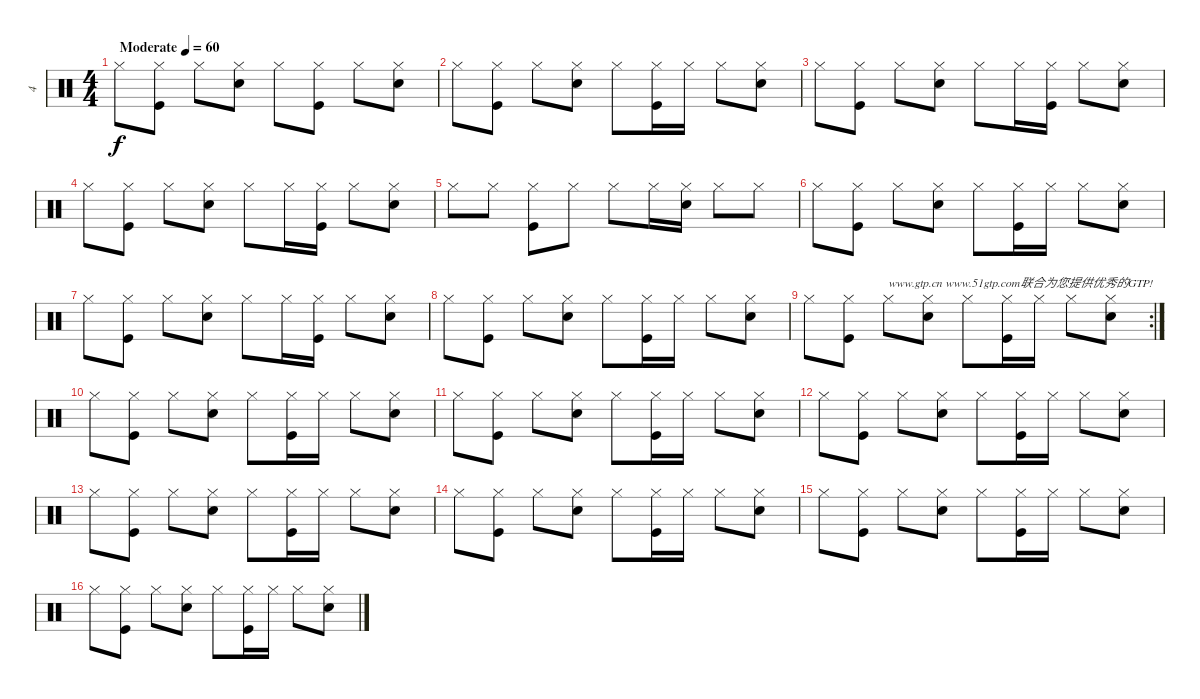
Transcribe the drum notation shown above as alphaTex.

\track ("4" "4") {instrument percussion}
\staff {score}
\articulation defaults
\ts (4 4)
\tempo (60 "Moderate")
\clef neutral
\ks c "Hi-Hat (closed)".8{dy f}
("Kick (hit)" "Hi-Hat (closed)").8 "Hi-Hat (closed)".8 ("Hand Clap (hit)" "Hi-Hat (closed)").8 "Hi-Hat (closed)".8 ("Kick (hit)" "Hi-Hat (closed)").8 "Hi-Hat (closed)".8 ("Hand Clap (hit)" "Hi-Hat (closed)").8 |
"Hi-Hat (closed)".8 ("Kick (hit)" "Hi-Hat (closed)").8 "Hi-Hat (closed)".8 ("Hand Clap (hit)" "Hi-Hat (closed)").8 "Hi-Hat (closed)".8 ("Kick (hit)" "Hi-Hat (closed)").16 "Hi-Hat (closed)".16 "Hi-Hat (closed)".8 ("Hand Clap (hit)" "Hi-Hat (closed)").8 |
"Hi-Hat (closed)".8 ("Kick (hit)" "Hi-Hat (closed)").8 "Hi-Hat (closed)".8 ("Hand Clap (hit)" "Hi-Hat (closed)").8 "Hi-Hat (closed)".8 "Hi-Hat (closed)".16 ("Kick (hit)" "Hi-Hat (closed)").16 "Hi-Hat (closed)".8 ("Hand Clap (hit)" "Hi-Hat (closed)").8 |
"Hi-Hat (closed)".8 ("Kick (hit)" "Hi-Hat (closed)").8 "Hi-Hat (closed)".8 ("Hand Clap (hit)" "Hi-Hat (closed)").8 "Hi-Hat (closed)".8 "Hi-Hat (closed)".16 ("Kick (hit)" "Hi-Hat (closed)").16 "Hi-Hat (closed)".8 ("Hand Clap (hit)" "Hi-Hat (closed)").8 |
"Hi-Hat (closed)".8 "Hi-Hat (closed)".8 ("Kick (hit)" "Hi-Hat (closed)").8 "Hi-Hat (closed)".8 "Hi-Hat (closed)".8 "Hi-Hat (closed)".16 ("Hand Clap (hit)" "Hi-Hat (closed)").16 "Hi-Hat (closed)".8 "Hi-Hat (closed)".8 |
"Hi-Hat (closed)".8 ("Kick (hit)" "Hi-Hat (closed)").8 "Hi-Hat (closed)".8 ("Hand Clap (hit)" "Hi-Hat (closed)").8 "Hi-Hat (closed)".8 ("Kick (hit)" "Hi-Hat (closed)").16 "Hi-Hat (closed)".16 "Hi-Hat (closed)".8 ("Hand Clap (hit)" "Hi-Hat (closed)").8 |
"Hi-Hat (closed)".8 ("Kick (hit)" "Hi-Hat (closed)").8 "Hi-Hat (closed)".8 ("Hand Clap (hit)" "Hi-Hat (closed)").8 "Hi-Hat (closed)".8 "Hi-Hat (closed)".16 ("Kick (hit)" "Hi-Hat (closed)").16 "Hi-Hat (closed)".8 ("Hand Clap (hit)" "Hi-Hat (closed)").8 |
"Hi-Hat (closed)".8 ("Kick (hit)" "Hi-Hat (closed)").8 "Hi-Hat (closed)".8 ("Hand Clap (hit)" "Hi-Hat (closed)").8 "Hi-Hat (closed)".8 ("Kick (hit)" "Hi-Hat (closed)").16 "Hi-Hat (closed)".16 "Hi-Hat (closed)".8 ("Hand Clap (hit)" "Hi-Hat (closed)").8 |
\rc 2 "Hi-Hat (closed)".8
("Kick (hit)" "Hi-Hat (closed)").8 "Hi-Hat (closed)".8{txt "www.gtp.cn www.51gtp.com联合为您提供优秀的GTP!"} ("Hand Clap (hit)" "Hi-Hat (closed)").8 "Hi-Hat (closed)".8 ("Kick (hit)" "Hi-Hat (closed)").16 "Hi-Hat (closed)".16 "Hi-Hat (closed)".8 ("Hand Clap (hit)" "Hi-Hat (closed)").8 |
"Hi-Hat (closed)".8 ("Kick (hit)" "Hi-Hat (closed)").8 "Hi-Hat (closed)".8 ("Hand Clap (hit)" "Hi-Hat (closed)").8 "Hi-Hat (closed)".8 ("Kick (hit)" "Hi-Hat (closed)").16 "Hi-Hat (closed)".16 "Hi-Hat (closed)".8 ("Hand Clap (hit)" "Hi-Hat (closed)").8 |
"Hi-Hat (closed)".8 ("Kick (hit)" "Hi-Hat (closed)").8 "Hi-Hat (closed)".8 ("Hand Clap (hit)" "Hi-Hat (closed)").8 "Hi-Hat (closed)".8 ("Kick (hit)" "Hi-Hat (closed)").16 "Hi-Hat (closed)".16 "Hi-Hat (closed)".8 ("Hand Clap (hit)" "Hi-Hat (closed)").8 |
"Hi-Hat (closed)".8 ("Kick (hit)" "Hi-Hat (closed)").8 "Hi-Hat (closed)".8 ("Hand Clap (hit)" "Hi-Hat (closed)").8 "Hi-Hat (closed)".8 ("Kick (hit)" "Hi-Hat (closed)").16 "Hi-Hat (closed)".16 "Hi-Hat (closed)".8 ("Hand Clap (hit)" "Hi-Hat (closed)").8 |
"Hi-Hat (closed)".8 ("Kick (hit)" "Hi-Hat (closed)").8 "Hi-Hat (closed)".8 ("Hand Clap (hit)" "Hi-Hat (closed)").8 "Hi-Hat (closed)".8 ("Kick (hit)" "Hi-Hat (closed)").16 "Hi-Hat (closed)".16 "Hi-Hat (closed)".8 ("Hand Clap (hit)" "Hi-Hat (closed)").8 |
"Hi-Hat (closed)".8 ("Kick (hit)" "Hi-Hat (closed)").8 "Hi-Hat (closed)".8 ("Hand Clap (hit)" "Hi-Hat (closed)").8 "Hi-Hat (closed)".8 ("Kick (hit)" "Hi-Hat (closed)").16 "Hi-Hat (closed)".16 "Hi-Hat (closed)".8 ("Hand Clap (hit)" "Hi-Hat (closed)").8 |
"Hi-Hat (closed)".8 ("Kick (hit)" "Hi-Hat (closed)").8 "Hi-Hat (closed)".8 ("Hand Clap (hit)" "Hi-Hat (closed)").8 "Hi-Hat (closed)".8 ("Kick (hit)" "Hi-Hat (closed)").16 "Hi-Hat (closed)".16 "Hi-Hat (closed)".8 ("Hand Clap (hit)" "Hi-Hat (closed)").8 |
"Hi-Hat (closed)".8 ("Kick (hit)" "Hi-Hat (closed)").8 "Hi-Hat (closed)".8 ("Hand Clap (hit)" "Hi-Hat (closed)").8 "Hi-Hat (closed)".8 ("Kick (hit)" "Hi-Hat (closed)").16 "Hi-Hat (closed)".16 "Hi-Hat (closed)".8 ("Hand Clap (hit)" "Hi-Hat (closed)").8
